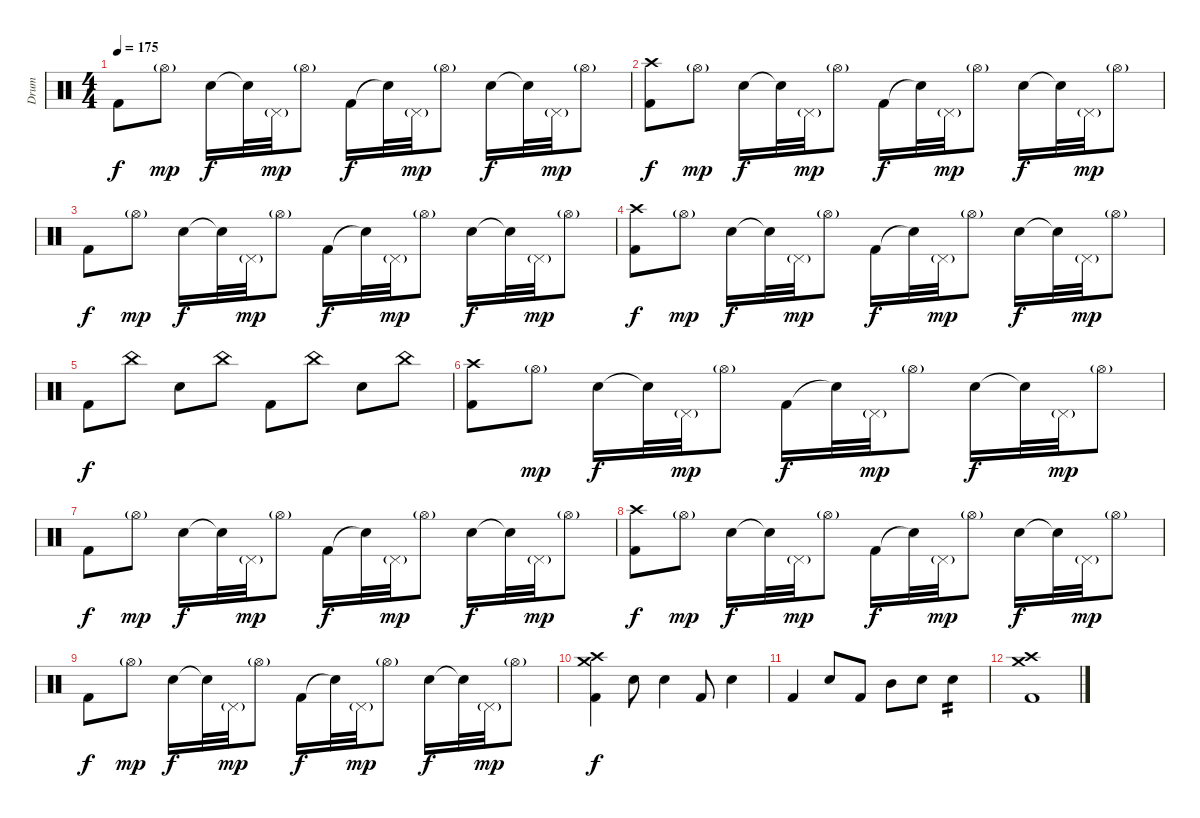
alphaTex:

\track ("Drum" "Drum") {instrument percussion}
\staff {score}
\articulation defaults
\ts (4 4)
\tempo 175
\clef neutral
\ks c "Kick (hit) 2".8{dy f} "Hi-Hat (open)"{g}.8{dy mp} "Electric Snare (hit)".16{dy f} "Snare (hit)"{t}.32 "Pedal Hi-Hat (hit)"{g}.32{dy mp} "Hi-Hat (open)"{g}.8 "Kick (hit) 2".16{dy f} "Snare (hit)"{t}.32 "Pedal Hi-Hat (hit)"{g}.32{dy mp} "Hi-Hat (open)"{g}.8 "Electric Snare (hit)".16{dy f} "Snare (hit)"{t}.32 "Pedal Hi-Hat (hit)"{g}.32{dy mp} "Hi-Hat (open)"{g}.8
|
("Kick (hit) 2" "Crash high (hit)").8{dy f} "Hi-Hat (open)"{g}.8{dy mp} "Electric Snare (hit)".16{dy f} "Snare (hit)"{t}.32 "Pedal Hi-Hat (hit)"{g}.32{dy mp} "Hi-Hat (open)"{g}.8 "Kick (hit) 2".16{dy f} "Snare (hit)"{t}.32 "Pedal Hi-Hat (hit)"{g}.32{dy mp} "Hi-Hat (open)"{g}.8 "Electric Snare (hit)".16{dy f} "Snare (hit)"{t}.32 "Pedal Hi-Hat (hit)"{g}.32{dy mp} "Hi-Hat (open)"{g}.8 |
"Kick (hit) 2".8{dy f} "Hi-Hat (open)"{g}.8{dy mp} "Electric Snare (hit)".16{dy f} "Snare (hit)"{t}.32 "Pedal Hi-Hat (hit)"{g}.32{dy mp} "Hi-Hat (open)"{g}.8 "Kick (hit) 2".16{dy f} "Snare (hit)"{t}.32 "Pedal Hi-Hat (hit)"{g}.32{dy mp} "Hi-Hat (open)"{g}.8 "Electric Snare (hit)".16{dy f} "Snare (hit)"{t}.32 "Pedal Hi-Hat (hit)"{g}.32{dy mp} "Hi-Hat (open)"{g}.8 |
("Kick (hit) 2" "Crash high (hit)").8{dy f} "Hi-Hat (open)"{g}.8{dy mp} "Electric Snare (hit)".16{dy f} "Snare (hit)"{t}.32 "Pedal Hi-Hat (hit)"{g}.32{dy mp} "Hi-Hat (open)"{g}.8 "Kick (hit) 2".16{dy f} "Snare (hit)"{t}.32 "Pedal Hi-Hat (hit)"{g}.32{dy mp} "Hi-Hat (open)"{g}.8 "Electric Snare (hit)".16{dy f} "Snare (hit)"{t}.32 "Pedal Hi-Hat (hit)"{g}.32{dy mp} "Hi-Hat (open)"{g}.8 |
"Kick (hit) 2".8{dy f} "China (hit)".8 "Electric Snare (hit)".8 "China (hit)".8 "Kick (hit) 2".8 "China (hit)".8 "Electric Snare (hit)".8 "China (hit)".8 |
("Kick (hit) 2" "Crash high (hit)").8 "Hi-Hat (open)"{g}.8{dy mp} "Electric Snare (hit)".16{dy f} "Snare (hit)"{t}.32 "Pedal Hi-Hat (hit)"{g}.32{dy mp} "Hi-Hat (open)"{g}.8 "Kick (hit) 2".16{dy f} "Snare (hit)"{t}.32 "Pedal Hi-Hat (hit)"{g}.32{dy mp} "Hi-Hat (open)"{g}.8 "Electric Snare (hit)".16{dy f} "Snare (hit)"{t}.32 "Pedal Hi-Hat (hit)"{g}.32{dy mp} "Hi-Hat (open)"{g}.8 |
"Kick (hit) 2".8{dy f} "Hi-Hat (open)"{g}.8{dy mp} "Electric Snare (hit)".16{dy f} "Snare (hit)"{t}.32 "Pedal Hi-Hat (hit)"{g}.32{dy mp} "Hi-Hat (open)"{g}.8 "Kick (hit) 2".16{dy f} "Snare (hit)"{t}.32 "Pedal Hi-Hat (hit)"{g}.32{dy mp} "Hi-Hat (open)"{g}.8 "Electric Snare (hit)".16{dy f} "Snare (hit)"{t}.32 "Pedal Hi-Hat (hit)"{g}.32{dy mp} "Hi-Hat (open)"{g}.8 |
("Kick (hit) 2" "Crash high (hit)").8{dy f} "Hi-Hat (open)"{g}.8{dy mp} "Electric Snare (hit)".16{dy f} "Snare (hit)"{t}.32 "Pedal Hi-Hat (hit)"{g}.32{dy mp} "Hi-Hat (open)"{g}.8 "Kick (hit) 2".16{dy f} "Snare (hit)"{t}.32 "Pedal Hi-Hat (hit)"{g}.32{dy mp} "Hi-Hat (open)"{g}.8 "Electric Snare (hit)".16{dy f} "Snare (hit)"{t}.32 "Pedal Hi-Hat (hit)"{g}.32{dy mp} "Hi-Hat (open)"{g}.8 |
"Kick (hit) 2".8{dy f} "Hi-Hat (open)"{g}.8{dy mp} "Electric Snare (hit)".16{dy f} "Snare (hit)"{t}.32 "Pedal Hi-Hat (hit)"{g}.32{dy mp} "Hi-Hat (open)"{g}.8 "Kick (hit) 2".16{dy f} "Snare (hit)"{t}.32 "Pedal Hi-Hat (hit)"{g}.32{dy mp} "Hi-Hat (open)"{g}.8 "Electric Snare (hit)".16{dy f} "Snare (hit)"{t}.32 "Pedal Hi-Hat (hit)"{g}.32{dy mp} "Hi-Hat (open)"{g}.8 |
("Kick (hit) 2" "Crash high (hit)" "Crash medium (hit)").4{dy f} "Electric Snare (hit)".8 "Electric Snare (hit)".4 "Kick (hit) 2".8 "Electric Snare (hit)".4 |
"Kick (hit) 2".4 "Electric Snare (hit)".8 "Kick (hit) 2".8 "Mid Tom (hit)".8 "Electric Snare (hit)".8 "Electric Snare (hit)".4{tp 2} |
("Kick (hit) 2" "Crash high (hit)" "Crash medium (hit)").1
